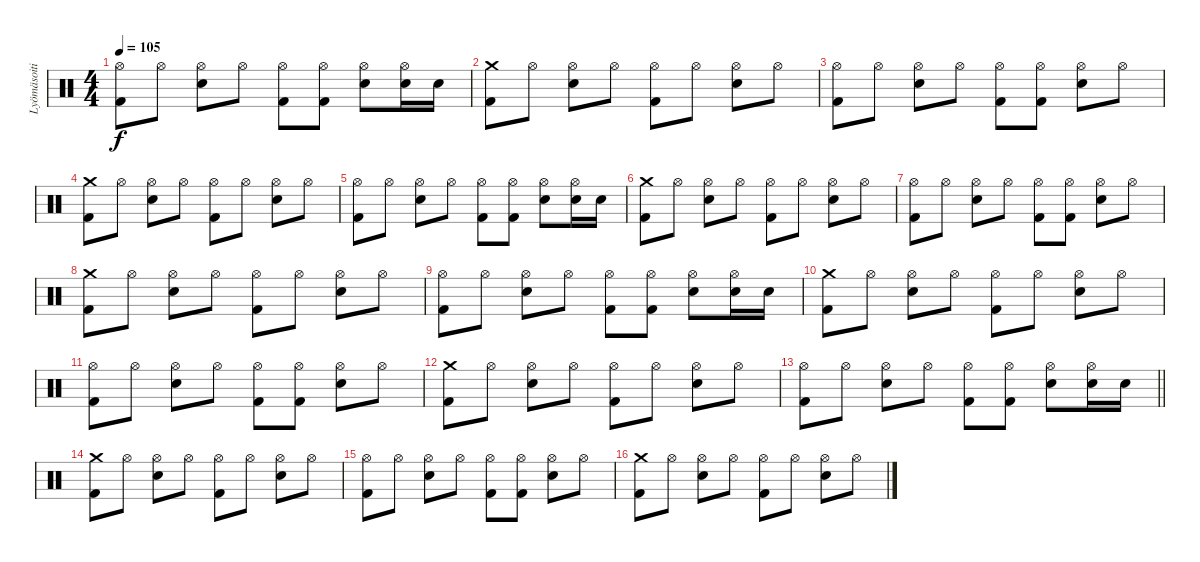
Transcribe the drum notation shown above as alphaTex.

\track ("Lyömäsoitin" "Lyömäsoiti") {instrument percussion}
\staff {score}
\articulation defaults
\ts (4 4)
\tempo 105
\clef neutral
\ks c
("Hi-Hat (open)" "Kick (hit) 2").8{dy f} "Hi-Hat (open)".8 ("Hi-Hat (open)" "Snare (hit) 2").8 "Hi-Hat (open)".8 ("Hi-Hat (open)" "Kick (hit) 2").8 ("Hi-Hat (open)" "Kick (hit) 2").8 ("Hi-Hat (open)" "Snare (hit) 2").8 ("Hi-Hat (open)" "Snare (hit) 2").16 "Snare (hit) 2".16 |
("Crash medium (hit)" "Kick (hit) 2").8 "Hi-Hat (open)".8 ("Hi-Hat (open)" "Snare (hit) 2").8 "Hi-Hat (open)".8 ("Hi-Hat (open)" "Kick (hit) 2").8 "Hi-Hat (open)".8 ("Hi-Hat (open)" "Snare (hit) 2").8 "Hi-Hat (open)".8 |
("Hi-Hat (open)" "Kick (hit) 2").8 "Hi-Hat (open)".8 ("Hi-Hat (open)" "Snare (hit) 2").8 "Hi-Hat (open)".8 ("Hi-Hat (open)" "Kick (hit) 2").8 ("Hi-Hat (open)" "Kick (hit) 2").8 ("Hi-Hat (open)" "Snare (hit) 2").8 "Hi-Hat (open)".8 |
("Crash medium (hit)" "Kick (hit) 2").8 "Hi-Hat (open)".8 ("Hi-Hat (open)" "Snare (hit) 2").8 "Hi-Hat (open)".8 ("Hi-Hat (open)" "Kick (hit) 2").8 "Hi-Hat (open)".8 ("Hi-Hat (open)" "Snare (hit) 2").8 "Hi-Hat (open)".8 |
("Hi-Hat (open)" "Kick (hit) 2").8 "Hi-Hat (open)".8 ("Hi-Hat (open)" "Snare (hit) 2").8 "Hi-Hat (open)".8 ("Hi-Hat (open)" "Kick (hit) 2").8 ("Hi-Hat (open)" "Kick (hit) 2").8 ("Hi-Hat (open)" "Snare (hit) 2").8 ("Hi-Hat (open)" "Snare (hit) 2").16 "Snare (hit) 2".16 |
("Crash medium (hit)" "Kick (hit) 2").8 "Hi-Hat (open)".8 ("Hi-Hat (open)" "Snare (hit) 2").8 "Hi-Hat (open)".8 ("Hi-Hat (open)" "Kick (hit) 2").8 "Hi-Hat (open)".8 ("Hi-Hat (open)" "Snare (hit) 2").8 "Hi-Hat (open)".8 |
("Hi-Hat (open)" "Kick (hit) 2").8 "Hi-Hat (open)".8 ("Hi-Hat (open)" "Snare (hit) 2").8 "Hi-Hat (open)".8 ("Hi-Hat (open)" "Kick (hit) 2").8 ("Hi-Hat (open)" "Kick (hit) 2").8 ("Hi-Hat (open)" "Snare (hit) 2").8 "Hi-Hat (open)".8 |
("Crash medium (hit)" "Kick (hit) 2").8 "Hi-Hat (open)".8 ("Hi-Hat (open)" "Snare (hit) 2").8 "Hi-Hat (open)".8 ("Hi-Hat (open)" "Kick (hit) 2").8 "Hi-Hat (open)".8 ("Hi-Hat (open)" "Snare (hit) 2").8 "Hi-Hat (open)".8 |
("Hi-Hat (open)" "Kick (hit) 2").8 "Hi-Hat (open)".8 ("Hi-Hat (open)" "Snare (hit) 2").8 "Hi-Hat (open)".8 ("Hi-Hat (open)" "Kick (hit) 2").8 ("Hi-Hat (open)" "Kick (hit) 2").8 ("Hi-Hat (open)" "Snare (hit) 2").8 ("Hi-Hat (open)" "Snare (hit) 2").16 "Snare (hit) 2".16 |
("Crash medium (hit)" "Kick (hit) 2").8 "Hi-Hat (open)".8 ("Hi-Hat (open)" "Snare (hit) 2").8 "Hi-Hat (open)".8 ("Hi-Hat (open)" "Kick (hit) 2").8 "Hi-Hat (open)".8 ("Hi-Hat (open)" "Snare (hit) 2").8 "Hi-Hat (open)".8 |
("Hi-Hat (open)" "Kick (hit) 2").8 "Hi-Hat (open)".8 ("Hi-Hat (open)" "Snare (hit) 2").8 "Hi-Hat (open)".8 ("Hi-Hat (open)" "Kick (hit) 2").8 ("Hi-Hat (open)" "Kick (hit) 2").8 ("Hi-Hat (open)" "Snare (hit) 2").8 "Hi-Hat (open)".8 |
("Crash medium (hit)" "Kick (hit) 2").8 "Hi-Hat (open)".8 ("Hi-Hat (open)" "Snare (hit) 2").8 "Hi-Hat (open)".8 ("Hi-Hat (open)" "Kick (hit) 2").8 "Hi-Hat (open)".8 ("Hi-Hat (open)" "Snare (hit) 2").8 "Hi-Hat (open)".8 |
\barLineRight lightlight
("Hi-Hat (open)" "Kick (hit) 2").8 "Hi-Hat (open)".8 ("Hi-Hat (open)" "Snare (hit) 2").8 "Hi-Hat (open)".8 ("Hi-Hat (open)" "Kick (hit) 2").8 ("Hi-Hat (open)" "Kick (hit) 2").8 ("Hi-Hat (open)" "Snare (hit) 2").8 ("Hi-Hat (open)" "Snare (hit) 2").16 "Snare (hit) 2".16 |
("Crash medium (hit)" "Kick (hit) 2").8 "Hi-Hat (open)".8 ("Hi-Hat (open)" "Snare (hit) 2").8 "Hi-Hat (open)".8 ("Hi-Hat (open)" "Kick (hit) 2").8 "Hi-Hat (open)".8 ("Hi-Hat (open)" "Snare (hit) 2").8 "Hi-Hat (open)".8 |
("Hi-Hat (open)" "Kick (hit) 2").8 "Hi-Hat (open)".8 ("Hi-Hat (open)" "Snare (hit) 2").8 "Hi-Hat (open)".8 ("Hi-Hat (open)" "Kick (hit) 2").8 ("Hi-Hat (open)" "Kick (hit) 2").8 ("Hi-Hat (open)" "Snare (hit) 2").8 "Hi-Hat (open)".8 |
("Crash medium (hit)" "Kick (hit) 2").8 "Hi-Hat (open)".8 ("Hi-Hat (open)" "Snare (hit) 2").8 "Hi-Hat (open)".8 ("Hi-Hat (open)" "Kick (hit) 2").8 "Hi-Hat (open)".8 ("Hi-Hat (open)" "Snare (hit) 2").8 "Hi-Hat (open)".8
